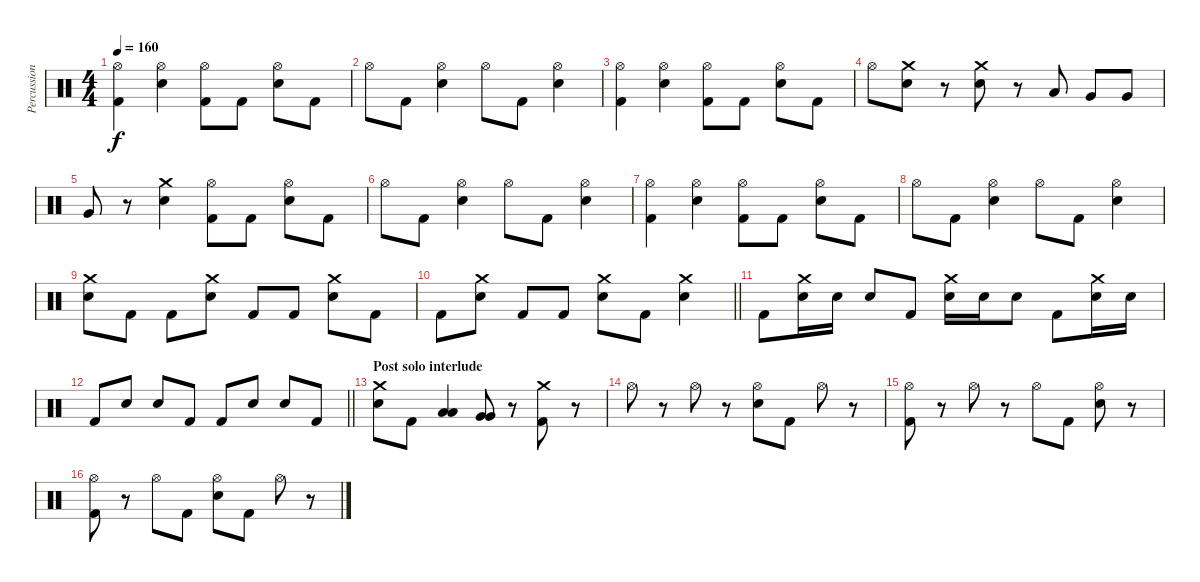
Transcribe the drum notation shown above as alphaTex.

\track ("Percussion" "Percussion") {instrument percussion}
\staff {score}
\articulation defaults
\ts (4 4)
\tempo 160
\clef neutral
\ks c
("Hi-Hat (open)" "Kick (hit) 2").4{dy f} ("Hi-Hat (open)" "Electric Snare (hit)").4 ("Hi-Hat (open)" "Kick (hit) 2").8 "Kick (hit) 2".8 ("Hi-Hat (open)" "Electric Snare (hit)").8 "Kick (hit) 2".8 |
"Hi-Hat (open)".8 "Kick (hit) 2".8 ("Hi-Hat (open)" "Electric Snare (hit)").4 "Hi-Hat (open)".8 "Kick (hit) 2".8 ("Hi-Hat (open)" "Electric Snare (hit)").4 |
("Hi-Hat (open)" "Kick (hit) 2").4 ("Hi-Hat (open)" "Electric Snare (hit)").4 ("Hi-Hat (open)" "Kick (hit) 2").8 "Kick (hit) 2".8 ("Hi-Hat (open)" "Electric Snare (hit)").8 "Kick (hit) 2".8 |
"Hi-Hat (open)".8 ("Crash medium (hit)" "Electric Snare (hit)").8 r.8 ("Crash medium (hit)" "Electric Snare (hit)").8 r.8 "Low Tom (hit)".8 "Very Low Tom (hit)".8 "Very Low Tom (hit)".8 |
"Very Low Tom (hit)".8 r.8 ("Crash medium (hit)" "Electric Snare (hit)").4 ("Hi-Hat (open)" "Kick (hit) 2").8 "Kick (hit) 2".8 ("Hi-Hat (open)" "Electric Snare (hit)").8 "Kick (hit) 2".8 |
"Hi-Hat (open)".8 "Kick (hit) 2".8 ("Hi-Hat (open)" "Electric Snare (hit)").4 "Hi-Hat (open)".8 "Kick (hit) 2".8 ("Hi-Hat (open)" "Electric Snare (hit)").4 |
("Hi-Hat (open)" "Kick (hit) 2").4 ("Hi-Hat (open)" "Electric Snare (hit)").4 ("Hi-Hat (open)" "Kick (hit) 2").8 "Kick (hit) 2".8 ("Hi-Hat (open)" "Electric Snare (hit)").8 "Kick (hit) 2".8 |
"Hi-Hat (open)".8 "Kick (hit) 2".8 ("Hi-Hat (open)" "Electric Snare (hit)").4 "Hi-Hat (open)".8 "Kick (hit) 2".8 ("Hi-Hat (open)" "Electric Snare (hit)").4 |
("Crash medium (hit)" "Electric Snare (hit)").8 "Kick (hit) 2".8 "Kick (hit) 2".8 ("Crash medium (hit)" "Electric Snare (hit)").8 "Kick (hit) 2".8 "Kick (hit) 2".8 ("Crash medium (hit)" "Electric Snare (hit)").8 "Kick (hit) 2".8 |
\barLineRight lightlight "Kick (hit) 2".8
("Crash medium (hit)" "Electric Snare (hit)").8 "Kick (hit) 2".8 "Kick (hit) 2".8 ("Crash medium (hit)" "Electric Snare (hit)").8 "Kick (hit) 2".8 ("Crash medium (hit)" "Electric Snare (hit)").4 |
"Kick (hit) 2".8 ("Crash medium (hit)" "Electric Snare (hit)").16 "Electric Snare (hit)".16 "Electric Snare (hit)".8 "Kick (hit) 2".8 ("Crash medium (hit)" "Electric Snare (hit)").16 "Electric Snare (hit)".16 "Electric Snare (hit)".8 "Kick (hit) 2".8 ("Crash medium (hit)" "Electric Snare (hit)").16 "Electric Snare (hit)".16 |
\barLineRight lightlight "Kick (hit) 2".8 "Electric Snare (hit)".8 "Electric Snare (hit)".8 "Kick (hit) 2".8 "Kick (hit) 2".8 "Electric Snare (hit)".8 "Electric Snare (hit)".8 "Kick (hit) 2".8
|
\section ("" "Post solo interlude")
("Crash medium (hit)" "Electric Snare (hit)").8 "Kick (hit) 2".8 ("Low Tom (hit)" "Low Tom (hit)").4 ("Very Low Tom (hit)" "Very Low Tom (hit)").8 r.8 ("Crash medium (hit)" "Kick (hit) 2").8 r.8 |
"Hi-Hat (open)".8 r.8 "Hi-Hat (open)".8 r.8 ("Hi-Hat (open)" "Electric Snare (hit)").8 "Kick (hit) 2".8 "Hi-Hat (open)".8 r.8 |
("Hi-Hat (open)" "Kick (hit) 2").8 r.8 "Hi-Hat (open)".8 r.8 "Hi-Hat (open)".8 "Kick (hit) 2".8 ("Hi-Hat (open)" "Electric Snare (hit)").8 r.8 |
("Hi-Hat (open)" "Kick (hit) 2").8 r.8 "Hi-Hat (open)".8 "Kick (hit) 2".8 ("Hi-Hat (open)" "Electric Snare (hit)").8 "Kick (hit) 2".8 "Hi-Hat (open)".8 r.8
